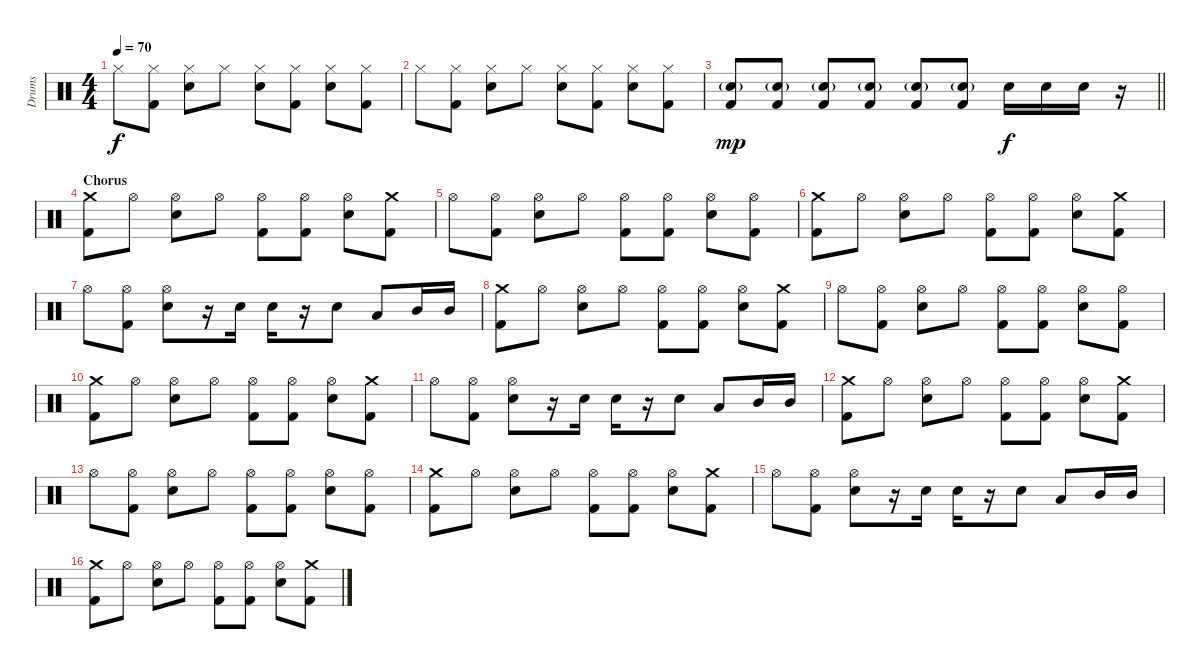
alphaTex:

\track ("Drums" "Drums") {instrument percussion}
\staff {score}
\articulation defaults
\ts (4 4)
\tempo 70
\clef neutral
\ks c "Hi-Hat (closed)".8{dy f}
("Hi-Hat (closed)" "Kick (hit) 2").8 ("Hi-Hat (closed)" "Snare (hit) 2").8 "Hi-Hat (closed)".8 ("Hi-Hat (closed)" "Snare (hit) 2").8 ("Hi-Hat (closed)" "Kick (hit) 2").8 ("Hi-Hat (closed)" "Snare (hit) 2").8 ("Hi-Hat (closed)" "Kick (hit) 2").8 |
"Hi-Hat (closed)".8 ("Hi-Hat (closed)" "Kick (hit) 2").8 ("Hi-Hat (closed)" "Snare (hit) 2").8 "Hi-Hat (closed)".8 ("Hi-Hat (closed)" "Snare (hit) 2").8 ("Hi-Hat (closed)" "Kick (hit) 2").8 ("Hi-Hat (closed)" "Snare (hit) 2").8 ("Hi-Hat (closed)" "Kick (hit) 2").8 |
\barLineRight lightlight
("Snare (hit) 2"{g} "Kick (hit) 2").8{dy mp} ("Snare (hit) 2"{g} "Kick (hit) 2").8 ("Snare (hit) 2"{g} "Kick (hit) 2").8 ("Snare (hit) 2"{g} "Kick (hit) 2").8 ("Snare (hit) 2"{g} "Kick (hit) 2").8 ("Snare (hit) 2"{g} "Kick (hit) 2").8 "Snare (hit) 2".16{dy f} "Snare (hit) 2".16 "Snare (hit) 2".16 r.16 |
\section ("" "Chorus")
("Crash medium (hit)" "Kick (hit) 2").8 "Hi-Hat (open)".8 ("Hi-Hat (open)" "Snare (hit) 2").8 "Hi-Hat (open)".8 ("Hi-Hat (open)" "Kick (hit) 2").8 ("Hi-Hat (open)" "Kick (hit) 2").8 ("Hi-Hat (open)" "Snare (hit) 2").8 ("Crash medium (hit)" "Kick (hit) 2").8 |
"Hi-Hat (open)".8 ("Hi-Hat (open)" "Kick (hit) 2").8 ("Hi-Hat (open)" "Snare (hit) 2").8 "Hi-Hat (open)".8 ("Hi-Hat (open)" "Kick (hit) 2").8 ("Hi-Hat (open)" "Kick (hit) 2").8 ("Hi-Hat (open)" "Snare (hit) 2").8 ("Hi-Hat (open)" "Kick (hit) 2").8 |
("Crash medium (hit)" "Kick (hit) 2").8 "Hi-Hat (open)".8 ("Hi-Hat (open)" "Snare (hit) 2").8 "Hi-Hat (open)".8 ("Hi-Hat (open)" "Kick (hit) 2").8 ("Hi-Hat (open)" "Kick (hit) 2").8 ("Hi-Hat (open)" "Snare (hit) 2").8 ("Crash medium (hit)" "Kick (hit) 2").8 |
"Hi-Hat (open)".8 ("Hi-Hat (open)" "Kick (hit) 2").8 ("Hi-Hat (open)" "Snare (hit) 2").8 r.16 "Snare (hit) 2".16 "Snare (hit) 2".16 r.16 "Snare (hit) 2".8 "Low Tom (hit)".8 "Mid Tom (hit)".16 "Mid Tom (hit)".16 |
("Crash medium (hit)" "Kick (hit) 2").8 "Hi-Hat (open)".8 ("Hi-Hat (open)" "Snare (hit) 2").8 "Hi-Hat (open)".8 ("Hi-Hat (open)" "Kick (hit) 2").8 ("Hi-Hat (open)" "Kick (hit) 2").8 ("Hi-Hat (open)" "Snare (hit) 2").8 ("Crash medium (hit)" "Kick (hit) 2").8 |
"Hi-Hat (open)".8 ("Hi-Hat (open)" "Kick (hit) 2").8 ("Hi-Hat (open)" "Snare (hit) 2").8 "Hi-Hat (open)".8 ("Hi-Hat (open)" "Kick (hit) 2").8 ("Hi-Hat (open)" "Kick (hit) 2").8 ("Hi-Hat (open)" "Snare (hit) 2").8 ("Hi-Hat (open)" "Kick (hit) 2").8 |
("Crash medium (hit)" "Kick (hit) 2").8 "Hi-Hat (open)".8 ("Hi-Hat (open)" "Snare (hit) 2").8 "Hi-Hat (open)".8 ("Hi-Hat (open)" "Kick (hit) 2").8 ("Hi-Hat (open)" "Kick (hit) 2").8 ("Hi-Hat (open)" "Snare (hit) 2").8 ("Crash medium (hit)" "Kick (hit) 2").8 |
"Hi-Hat (open)".8 ("Hi-Hat (open)" "Kick (hit) 2").8 ("Hi-Hat (open)" "Snare (hit) 2").8 r.16 "Snare (hit) 2".16 "Snare (hit) 2".16 r.16 "Snare (hit) 2".8 "Low Tom (hit)".8 "Mid Tom (hit)".16 "Mid Tom (hit)".16 |
("Crash medium (hit)" "Kick (hit) 2").8 "Hi-Hat (open)".8 ("Hi-Hat (open)" "Snare (hit) 2").8 "Hi-Hat (open)".8 ("Hi-Hat (open)" "Kick (hit) 2").8 ("Hi-Hat (open)" "Kick (hit) 2").8 ("Hi-Hat (open)" "Snare (hit) 2").8 ("Crash medium (hit)" "Kick (hit) 2").8 |
"Hi-Hat (open)".8 ("Hi-Hat (open)" "Kick (hit) 2").8 ("Hi-Hat (open)" "Snare (hit) 2").8 "Hi-Hat (open)".8 ("Hi-Hat (open)" "Kick (hit) 2").8 ("Hi-Hat (open)" "Kick (hit) 2").8 ("Hi-Hat (open)" "Snare (hit) 2").8 ("Hi-Hat (open)" "Kick (hit) 2").8 |
("Crash medium (hit)" "Kick (hit) 2").8 "Hi-Hat (open)".8 ("Hi-Hat (open)" "Snare (hit) 2").8 "Hi-Hat (open)".8 ("Hi-Hat (open)" "Kick (hit) 2").8 ("Hi-Hat (open)" "Kick (hit) 2").8 ("Hi-Hat (open)" "Snare (hit) 2").8 ("Crash medium (hit)" "Kick (hit) 2").8 |
"Hi-Hat (open)".8 ("Hi-Hat (open)" "Kick (hit) 2").8 ("Hi-Hat (open)" "Snare (hit) 2").8 r.16 "Snare (hit) 2".16 "Snare (hit) 2".16 r.16 "Snare (hit) 2".8 "Low Tom (hit)".8 "Mid Tom (hit)".16 "Mid Tom (hit)".16 |
("Crash medium (hit)" "Kick (hit) 2").8 "Hi-Hat (open)".8 ("Hi-Hat (open)" "Snare (hit) 2").8 "Hi-Hat (open)".8 ("Hi-Hat (open)" "Kick (hit) 2").8 ("Hi-Hat (open)" "Kick (hit) 2").8 ("Hi-Hat (open)" "Snare (hit) 2").8 ("Crash medium (hit)" "Kick (hit) 2").8
